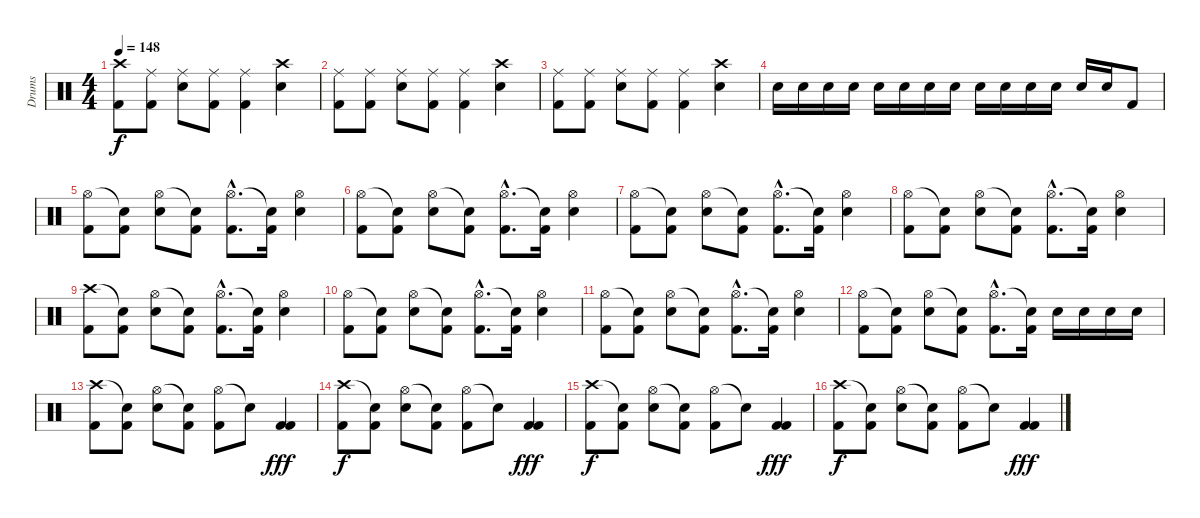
\track ("Drums" "Drums") {instrument percussion}
\staff {score}
\articulation defaults
\ts (4 4)
\tempo 148
\clef neutral
\ks c
("Crash high (hit)" "Kick (hit) 2").8{dy f} ("Ride (middle)" "Kick (hit) 2").8 ("Ride (middle)" "Snare (hit) 2").8 ("Ride (middle)" "Kick (hit) 2").8 ("Ride (middle)" "Kick (hit) 2").4 ("Crash high (hit)" "Snare (hit) 2").4 |
("Ride (middle)" "Kick (hit) 2").8 ("Ride (middle)" "Kick (hit) 2").8 ("Ride (middle)" "Snare (hit) 2").8 ("Ride (middle)" "Kick (hit) 2").8 ("Ride (middle)" "Kick (hit) 2").4 ("Crash high (hit)" "Snare (hit) 2").4 |
("Ride (middle)" "Kick (hit) 2").8 ("Ride (middle)" "Kick (hit) 2").8 ("Ride (middle)" "Snare (hit) 2").8 ("Ride (middle)" "Kick (hit) 2").8 ("Ride (middle)" "Kick (hit) 2").4 ("Crash high (hit)" "Snare (hit) 2").4 |
"Snare (hit) 2".16 "Snare (hit) 2".16 "Snare (hit) 2".16 "Snare (hit) 2".16 "Snare (hit) 2".16 "Snare (hit) 2".16 "Snare (hit) 2".16 "Snare (hit) 2".16 "Snare (hit) 2".16 "Snare (hit) 2".16 "Snare (hit) 2".16 "Snare (hit) 2".16 "Snare (hit) 2".16 "Snare (hit) 2".16 "Kick (hit) 2".8 |
("Hi-Hat (open)" "Kick (hit) 2").8 ("Snare (hit)"{t} "Kick (hit) 2").8 ("Hi-Hat (open)" "Snare (hit) 2").8 ("Snare (hit)"{t} "Kick (hit) 2").8 ("Hi-Hat (open)"{hac} "Kick (hit) 2"{hac}).8{d} ("Snare (hit)"{t} "Kick (hit) 2").16 ("Hi-Hat (open)" "Snare (hit) 2").4 |
("Hi-Hat (open)" "Kick (hit) 2").8 ("Snare (hit)"{t} "Kick (hit) 2").8 ("Hi-Hat (open)" "Snare (hit) 2").8 ("Snare (hit)"{t} "Kick (hit) 2").8 ("Hi-Hat (open)"{hac} "Kick (hit) 2"{hac}).8{d} ("Snare (hit)"{t} "Kick (hit) 2").16 ("Hi-Hat (open)" "Snare (hit) 2").4 |
("Hi-Hat (open)" "Kick (hit) 2").8 ("Snare (hit)"{t} "Kick (hit) 2").8 ("Hi-Hat (open)" "Snare (hit) 2").8 ("Snare (hit)"{t} "Kick (hit) 2").8 ("Hi-Hat (open)"{hac} "Kick (hit) 2"{hac}).8{d} ("Snare (hit)"{t} "Kick (hit) 2").16 ("Hi-Hat (open)" "Snare (hit) 2").4 |
("Hi-Hat (open)" "Kick (hit) 2").8 ("Snare (hit)"{t} "Kick (hit) 2").8 ("Hi-Hat (open)" "Snare (hit) 2").8 ("Snare (hit)"{t} "Kick (hit) 2").8 ("Hi-Hat (open)"{hac} "Kick (hit) 2"{hac}).8{d} ("Snare (hit)"{t} "Kick (hit) 2").16 ("Hi-Hat (open)" "Snare (hit) 2").4 |
("Crash high (hit)" "Kick (hit) 2").8 ("Snare (hit)"{t} "Kick (hit) 2").8 ("Hi-Hat (open)" "Snare (hit) 2").8 ("Snare (hit)"{t} "Kick (hit) 2").8 ("Hi-Hat (open)"{hac} "Kick (hit) 2"{hac}).8{d} ("Snare (hit)"{t} "Kick (hit) 2").16 ("Hi-Hat (open)" "Snare (hit) 2").4 |
("Hi-Hat (open)" "Kick (hit) 2").8 ("Snare (hit)"{t} "Kick (hit) 2").8 ("Hi-Hat (open)" "Snare (hit) 2").8 ("Snare (hit)"{t} "Kick (hit) 2").8 ("Hi-Hat (open)"{hac} "Kick (hit) 2"{hac}).8{d} ("Snare (hit)"{t} "Kick (hit) 2").16 ("Hi-Hat (open)" "Snare (hit) 2").4 |
("Hi-Hat (open)" "Kick (hit) 2").8 ("Snare (hit)"{t} "Kick (hit) 2").8 ("Hi-Hat (open)" "Snare (hit) 2").8 ("Snare (hit)"{t} "Kick (hit) 2").8 ("Hi-Hat (open)"{hac} "Kick (hit) 2"{hac}).8{d} ("Snare (hit)"{t} "Kick (hit) 2").16 ("Hi-Hat (open)" "Snare (hit) 2").4 |
("Hi-Hat (open)" "Kick (hit) 2").8 ("Snare (hit)"{t} "Kick (hit) 2").8 ("Hi-Hat (open)" "Snare (hit) 2").8 ("Snare (hit)"{t} "Kick (hit) 2").8 ("Hi-Hat (open)"{hac} "Kick (hit) 2"{hac}).8{d} ("Snare (hit)"{t} "Kick (hit) 2").16 "Snare (hit) 2".16 "Snare (hit) 2".16 "Snare (hit) 2".16 "Snare (hit) 2".16 |
("Crash high (hit)" "Kick (hit) 2").8 ("Snare (hit)"{t} "Kick (hit) 2").8 ("Hi-Hat (open)" "Snare (hit) 2").8 ("Snare (hit)"{t} "Kick (hit) 2").8 ("Hi-Hat (open)" "Kick (hit) 2").8 "Snare (hit)"{t}.8 ("Kick (hit) 2" "Kick (hit) 2").4{dy fff} |
("Crash high (hit)" "Kick (hit) 2").8{dy f} ("Snare (hit)"{t} "Kick (hit) 2").8 ("Hi-Hat (open)" "Snare (hit) 2").8 ("Snare (hit)"{t} "Kick (hit) 2").8 ("Hi-Hat (open)" "Kick (hit) 2").8 "Snare (hit)"{t}.8 ("Kick (hit) 2" "Kick (hit) 2").4{dy fff} |
("Crash high (hit)" "Kick (hit) 2").8{dy f} ("Snare (hit)"{t} "Kick (hit) 2").8 ("Hi-Hat (open)" "Snare (hit) 2").8 ("Snare (hit)"{t} "Kick (hit) 2").8 ("Hi-Hat (open)" "Kick (hit) 2").8 "Snare (hit)"{t}.8 ("Kick (hit) 2" "Kick (hit) 2").4{dy fff} |
("Crash high (hit)" "Kick (hit) 2").8{dy f} ("Snare (hit)"{t} "Kick (hit) 2").8 ("Hi-Hat (open)" "Snare (hit) 2").8 ("Snare (hit)"{t} "Kick (hit) 2").8 ("Hi-Hat (open)" "Kick (hit) 2").8 "Snare (hit)"{t}.8 ("Kick (hit) 2" "Kick (hit) 2").4{dy fff}
